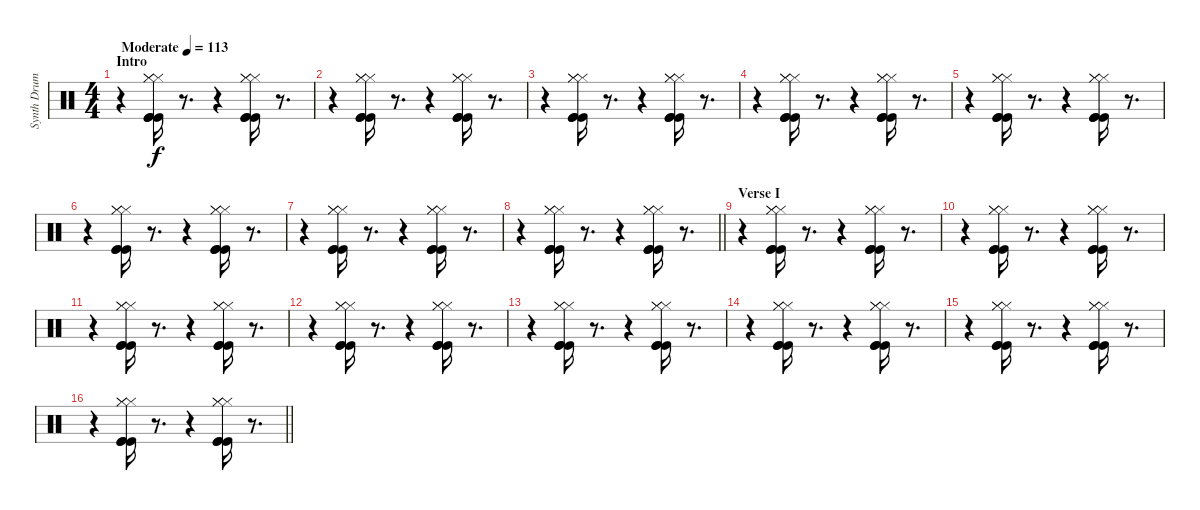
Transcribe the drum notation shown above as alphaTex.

\track ("Synth Drums" "Synth Drum") {instrument percussion}
\staff {score}
\articulation defaults
\ts (4 4)
\section ("" "Intro")
\tempo (113 "Moderate")
\clef neutral
\ks c
r.4{dy f} ("Kick (hit)" "Kick (hit)" "Kick (hit)" "Hi-Hat (closed)" "Hi-Hat (closed)" "Hi-Hat (closed)").16 r.8{d} r.4 ("Kick (hit)" "Kick (hit)" "Kick (hit)" "Hi-Hat (closed)" "Hi-Hat (closed)" "Hi-Hat (closed)").16 r.8{d} |
r.4 ("Kick (hit)" "Kick (hit)" "Kick (hit)" "Hi-Hat (closed)" "Hi-Hat (closed)" "Hi-Hat (closed)").16 r.8{d} r.4 ("Kick (hit)" "Kick (hit)" "Kick (hit)" "Hi-Hat (closed)" "Hi-Hat (closed)" "Hi-Hat (closed)").16 r.8{d} |
r.4 ("Kick (hit)" "Kick (hit)" "Kick (hit)" "Hi-Hat (closed)" "Hi-Hat (closed)" "Hi-Hat (closed)").16 r.8{d} r.4 ("Kick (hit)" "Kick (hit)" "Kick (hit)" "Hi-Hat (closed)" "Hi-Hat (closed)" "Hi-Hat (closed)").16 r.8{d} |
r.4 ("Kick (hit)" "Kick (hit)" "Kick (hit)" "Hi-Hat (closed)" "Hi-Hat (closed)" "Hi-Hat (closed)").16 r.8{d} r.4 ("Kick (hit)" "Kick (hit)" "Kick (hit)" "Hi-Hat (closed)" "Hi-Hat (closed)" "Hi-Hat (closed)").16 r.8{d} |
r.4 ("Kick (hit)" "Kick (hit)" "Kick (hit)" "Hi-Hat (closed)" "Hi-Hat (closed)" "Hi-Hat (closed)").16 r.8{d} r.4 ("Kick (hit)" "Kick (hit)" "Kick (hit)" "Hi-Hat (closed)" "Hi-Hat (closed)" "Hi-Hat (closed)").16 r.8{d} |
r.4 ("Kick (hit)" "Kick (hit)" "Kick (hit)" "Hi-Hat (closed)" "Hi-Hat (closed)" "Hi-Hat (closed)").16 r.8{d} r.4 ("Kick (hit)" "Kick (hit)" "Kick (hit)" "Hi-Hat (closed)" "Hi-Hat (closed)" "Hi-Hat (closed)").16 r.8{d} |
r.4 ("Kick (hit)" "Kick (hit)" "Kick (hit)" "Hi-Hat (closed)" "Hi-Hat (closed)" "Hi-Hat (closed)").16 r.8{d} r.4 ("Kick (hit)" "Kick (hit)" "Kick (hit)" "Hi-Hat (closed)" "Hi-Hat (closed)" "Hi-Hat (closed)").16 r.8{d} |
\barLineRight lightlight
r.4 ("Kick (hit)" "Kick (hit)" "Kick (hit)" "Hi-Hat (closed)" "Hi-Hat (closed)" "Hi-Hat (closed)").16 r.8{d} r.4 ("Kick (hit)" "Kick (hit)" "Kick (hit)" "Hi-Hat (closed)" "Hi-Hat (closed)" "Hi-Hat (closed)").16 r.8{d} |
\section ("" "Verse I")
r.4 ("Kick (hit)" "Kick (hit)" "Kick (hit)" "Hi-Hat (closed)" "Hi-Hat (closed)" "Hi-Hat (closed)").16 r.8{d} r.4 ("Kick (hit)" "Kick (hit)" "Kick (hit)" "Hi-Hat (closed)" "Hi-Hat (closed)" "Hi-Hat (closed)").16 r.8{d} |
r.4 ("Kick (hit)" "Kick (hit)" "Kick (hit)" "Hi-Hat (closed)" "Hi-Hat (closed)" "Hi-Hat (closed)").16 r.8{d} r.4 ("Kick (hit)" "Kick (hit)" "Kick (hit)" "Hi-Hat (closed)" "Hi-Hat (closed)" "Hi-Hat (closed)").16 r.8{d} |
r.4 ("Kick (hit)" "Kick (hit)" "Kick (hit)" "Hi-Hat (closed)" "Hi-Hat (closed)" "Hi-Hat (closed)").16 r.8{d} r.4 ("Kick (hit)" "Kick (hit)" "Kick (hit)" "Hi-Hat (closed)" "Hi-Hat (closed)" "Hi-Hat (closed)").16 r.8{d} |
r.4 ("Kick (hit)" "Kick (hit)" "Kick (hit)" "Hi-Hat (closed)" "Hi-Hat (closed)" "Hi-Hat (closed)").16 r.8{d} r.4 ("Kick (hit)" "Kick (hit)" "Kick (hit)" "Hi-Hat (closed)" "Hi-Hat (closed)" "Hi-Hat (closed)").16 r.8{d} |
r.4 ("Kick (hit)" "Kick (hit)" "Kick (hit)" "Hi-Hat (closed)" "Hi-Hat (closed)" "Hi-Hat (closed)").16 r.8{d} r.4 ("Kick (hit)" "Kick (hit)" "Kick (hit)" "Hi-Hat (closed)" "Hi-Hat (closed)" "Hi-Hat (closed)").16 r.8{d} |
r.4 ("Kick (hit)" "Kick (hit)" "Kick (hit)" "Hi-Hat (closed)" "Hi-Hat (closed)" "Hi-Hat (closed)").16 r.8{d} r.4 ("Kick (hit)" "Kick (hit)" "Kick (hit)" "Hi-Hat (closed)" "Hi-Hat (closed)" "Hi-Hat (closed)").16 r.8{d} |
r.4 ("Kick (hit)" "Kick (hit)" "Kick (hit)" "Hi-Hat (closed)" "Hi-Hat (closed)" "Hi-Hat (closed)").16 r.8{d} r.4 ("Kick (hit)" "Kick (hit)" "Kick (hit)" "Hi-Hat (closed)" "Hi-Hat (closed)" "Hi-Hat (closed)").16 r.8{d} |
\barLineRight lightlight
r.4 ("Kick (hit)" "Kick (hit)" "Kick (hit)" "Hi-Hat (closed)" "Hi-Hat (closed)" "Hi-Hat (closed)").16 r.8{d} r.4 ("Kick (hit)" "Kick (hit)" "Kick (hit)" "Hi-Hat (closed)" "Hi-Hat (closed)" "Hi-Hat (closed)").16 r.8{d}
